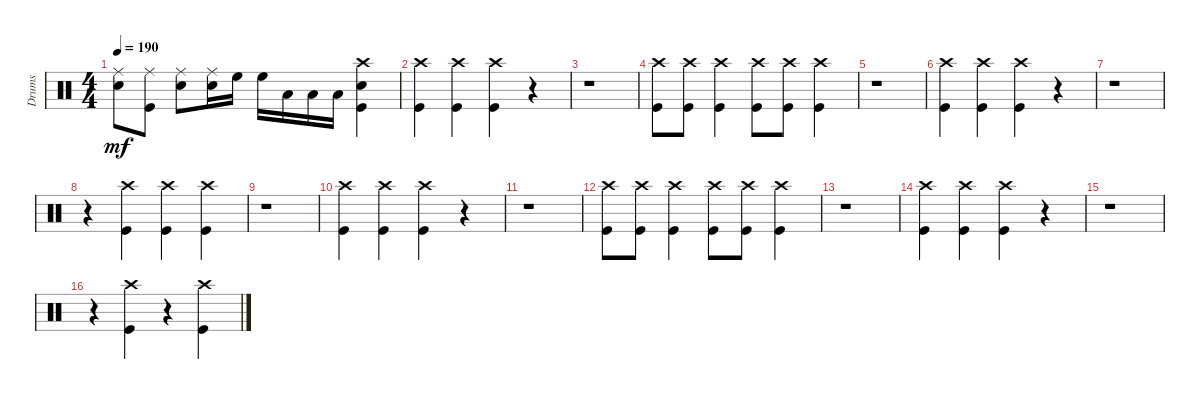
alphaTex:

\track ("Drums" "Drums") {instrument percussion}
\staff {score}
\articulation defaults
\ts (4 4)
\tempo 190
\clef neutral
\ks c
("Snare (hit) 2" "Ride (middle)").8{dy mf} ("Kick (hit)" "Ride (middle)").8 ("Snare (hit) 2" "Ride (middle)").8 ("Snare (hit) 2" "Ride (middle)").16 "High Floor Tom (hit)".16 "High Floor Tom (hit)".16 "Low Tom (hit)".16 "Low Tom (hit)".16 "Low Floor Tom (hit)".16 ("Snare (hit) 2" "Crash high (hit)" "Kick (hit)").4 |
("Crash high (hit)" "Kick (hit)").4 ("Crash high (hit)" "Kick (hit)").4 ("Crash high (hit)" "Kick (hit)").4 r.4 |
r.1 |
("Kick (hit)" "Crash high (hit)").8 ("Crash high (hit)" "Kick (hit)").8 ("Crash high (hit)" "Kick (hit)").4 ("Crash high (hit)" "Kick (hit)").8 ("Kick (hit)" "Crash high (hit)").8 ("Kick (hit)" "Crash high (hit)").4 |
r.1 |
("Kick (hit)" "Crash high (hit)").4 ("Kick (hit)" "Crash high (hit)").4 ("Kick (hit)" "Crash high (hit)").4 r.4 |
r.1 |
r.4 ("Kick (hit)" "Crash high (hit)").4 ("Kick (hit)" "Crash high (hit)").4 ("Kick (hit)" "Crash high (hit)").4 |
r.1 |
("Kick (hit)" "Crash high (hit)").4 ("Kick (hit)" "Crash high (hit)").4 ("Kick (hit)" "Crash high (hit)").4 r.4 |
r.1 |
("Crash high (hit)" "Kick (hit)").8 ("Kick (hit)" "Crash high (hit)").8 ("Kick (hit)" "Crash high (hit)").4 ("Kick (hit)" "Crash high (hit)").8 ("Crash high (hit)" "Kick (hit)").8 ("Crash high (hit)" "Kick (hit)").4 |
r.1 |
("Crash high (hit)" "Kick (hit)").4 ("Crash high (hit)" "Kick (hit)").4 ("Crash high (hit)" "Kick (hit)").4 r.4 |
r.1 |
r.4 ("Kick (hit)" "Crash high (hit)").4 r.4 ("Kick (hit)" "Crash high (hit)").4
